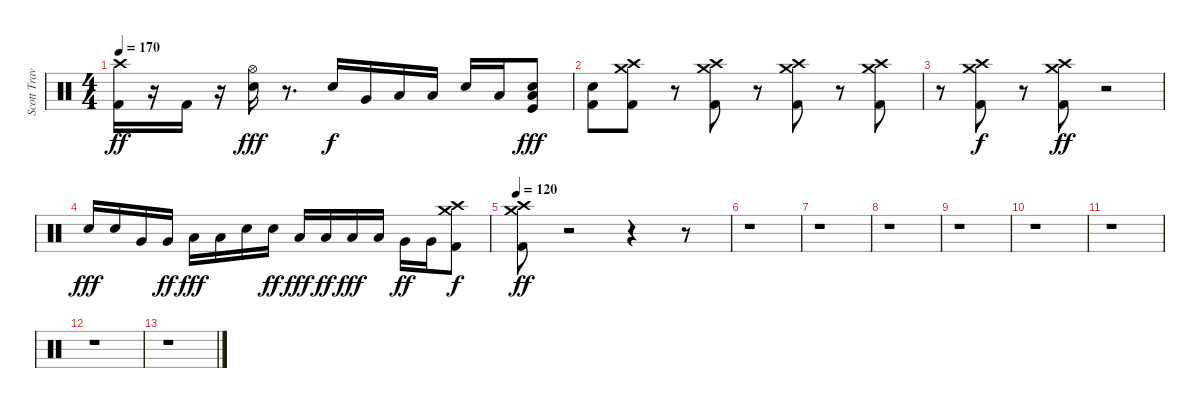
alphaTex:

\track ("Scott Travis" "Scott Trav") {instrument percussion}
\staff {score}
\articulation defaults
\ts (4 4)
\tempo 170
\clef neutral
\ks c
("Crash high (hit)" "Kick (hit) 2").16{dy ff} r.16 "Kick (hit) 2".16 r.16 ("Hi-Hat (open)" "Snare (hit) 2").16{dy fff} r.8{d} "Snare (hit) 2".16{dy f} "Very Low Tom (hit)".16 "Low Floor Tom (hit)".16 "Low Floor Tom (hit)".16 "Snare (hit) 2".16 "Low Floor Tom (hit)".16 ("Snare (hit) 2" "Low Floor Tom (hit)" "Kick (hit)").8{dy fff} |
("Snare (hit) 2" "Kick (hit) 2").8 ("Kick (hit) 2" "Crash high (hit)" "Crash medium (hit)").8 r.8 ("Kick (hit) 2" "Crash high (hit)" "Crash medium (hit)").8 r.8 ("Crash high (hit)" "Kick (hit) 2" "Crash medium (hit)").8 r.8 ("Crash high (hit)" "Kick (hit) 2" "Crash medium (hit)").8 |
r.8 ("Kick (hit) 2" "Crash high (hit)" "Crash medium (hit)").8{dy f} r.8 ("Crash high (hit)" "Crash medium (hit)" "Kick (hit) 2").8{dy ff} r.2 |
"Snare (hit) 2".16{dy fff} "Snare (hit) 2".16 "Very Low Tom (hit)".16 "Very Low Tom (hit)".16{dy ff} "Low Floor Tom (hit)".16{dy fff} "Low Floor Tom (hit)".16 "Snare (hit) 2".16 "Snare (hit) 2".16{dy ff} "Low Tom (hit)".16{dy fff} "Low Tom (hit)".16{dy ff} "Low Tom (hit)".16{dy fff} "Low Tom (hit)".16 "Very Low Tom (hit)".16{dy ff} "Very Low Tom (hit)".16 ("Crash medium (hit)" "Crash high (hit)" "Kick (hit) 2").8{dy f} |
\tempo 120
("Kick (hit) 2" "Crash high (hit)" "Crash medium (hit)").8{dy ff} r.2 r.4 r.8 |
r.1 |
r.1 |
r.1 |
r.1 |
r.1 |
r.1 |
r.1 |
r.1
